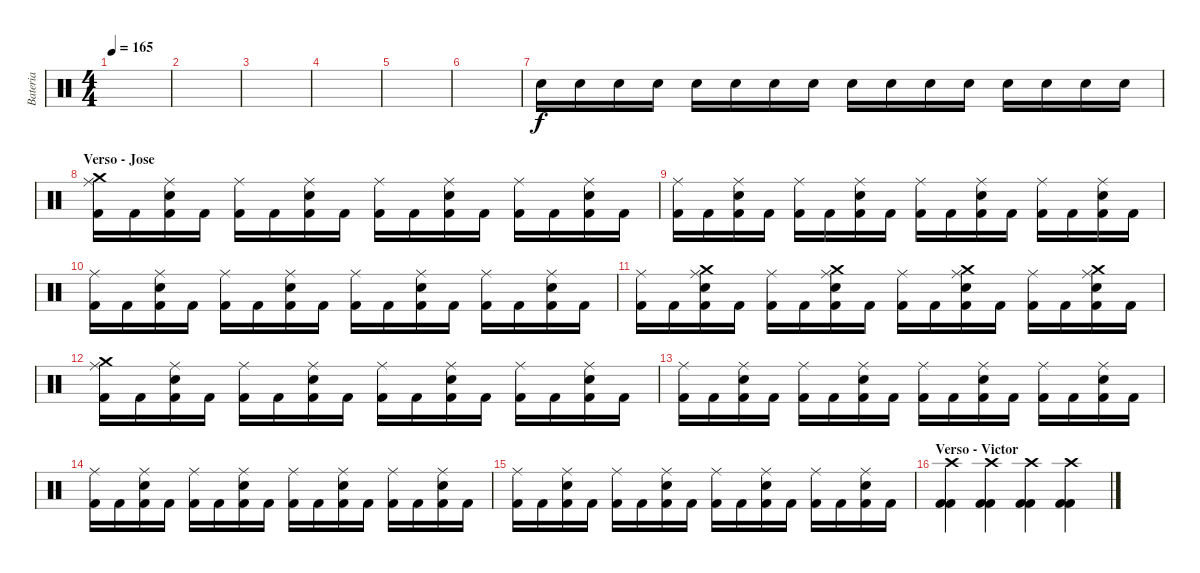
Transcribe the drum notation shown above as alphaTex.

\track ("Bateria" "Bateria") {instrument percussion}
\staff {score}
\articulation defaults
\ts (4 4)
\tempo 165
\clef neutral
\ks c
|
|
|
|
|
|
"Snare (hit) 2".16 "Snare (hit) 2".16 "Snare (hit) 2".16 "Snare (hit) 2".16 "Snare (hit) 2".16 "Snare (hit) 2".16 "Snare (hit) 2".16 "Snare (hit) 2".16 "Snare (hit) 2".16 "Snare (hit) 2".16 "Snare (hit) 2".16 "Snare (hit) 2".16 "Snare (hit) 2".16 "Snare (hit) 2".16 "Snare (hit) 2".16 "Snare (hit) 2".16 |
\section ("" "Verso - Jose")
("Crash medium (hit)" "Kick (hit) 2" "Ride (middle)").16 "Kick (hit) 2".16 ("Snare (hit) 2" "Ride (middle)" "Kick (hit) 2").16 "Kick (hit) 2".16 ("Kick (hit) 2" "Ride (middle)").16 "Kick (hit) 2".16 ("Snare (hit) 2" "Ride (middle)" "Kick (hit) 2").16 "Kick (hit) 2".16 ("Kick (hit) 2" "Ride (middle)").16 "Kick (hit) 2".16 ("Snare (hit) 2" "Ride (middle)" "Kick (hit) 2").16 "Kick (hit) 2".16 ("Kick (hit) 2" "Ride (middle)").16 "Kick (hit) 2".16 ("Snare (hit) 2" "Ride (middle)" "Kick (hit) 2").16 "Kick (hit) 2".16 |
("Kick (hit) 2" "Ride (middle)").16 "Kick (hit) 2".16 ("Snare (hit) 2" "Ride (middle)" "Kick (hit) 2").16 "Kick (hit) 2".16 ("Kick (hit) 2" "Ride (middle)").16 "Kick (hit) 2".16 ("Snare (hit) 2" "Ride (middle)" "Kick (hit) 2").16 "Kick (hit) 2".16 ("Kick (hit) 2" "Ride (middle)").16 "Kick (hit) 2".16 ("Snare (hit) 2" "Ride (middle)" "Kick (hit) 2").16 "Kick (hit) 2".16 ("Kick (hit) 2" "Ride (middle)").16 "Kick (hit) 2".16 ("Snare (hit) 2" "Ride (middle)" "Kick (hit) 2").16 "Kick (hit) 2".16 |
("Kick (hit) 2" "Ride (middle)").16 "Kick (hit) 2".16 ("Snare (hit) 2" "Ride (middle)" "Kick (hit) 2").16 "Kick (hit) 2".16 ("Kick (hit) 2" "Ride (middle)").16 "Kick (hit) 2".16 ("Snare (hit) 2" "Ride (middle)" "Kick (hit) 2").16 "Kick (hit) 2".16 ("Kick (hit) 2" "Ride (middle)").16 "Kick (hit) 2".16 ("Snare (hit) 2" "Ride (middle)" "Kick (hit) 2").16 "Kick (hit) 2".16 ("Kick (hit) 2" "Ride (middle)").16 "Kick (hit) 2".16 ("Snare (hit) 2" "Ride (middle)" "Kick (hit) 2").16 "Kick (hit) 2".16 |
("Kick (hit) 2" "Ride (middle)").16 "Kick (hit) 2".16 ("Snare (hit) 2" "Crash medium (hit)" "Ride (middle)" "Kick (hit) 2").16 "Kick (hit) 2".16 ("Kick (hit) 2" "Ride (middle)").16 "Kick (hit) 2".16 ("Snare (hit) 2" "Crash medium (hit)" "Ride (middle)" "Kick (hit) 2").16 "Kick (hit) 2".16 ("Kick (hit) 2" "Ride (middle)").16 "Kick (hit) 2".16 ("Snare (hit) 2" "Crash medium (hit)" "Ride (middle)" "Kick (hit) 2").16 "Kick (hit) 2".16 ("Kick (hit) 2" "Ride (middle)").16 "Kick (hit) 2".16 ("Snare (hit) 2" "Crash medium (hit)" "Ride (middle)" "Kick (hit) 2").16 "Kick (hit) 2".16 |
("Crash medium (hit)" "Kick (hit) 2" "Ride (middle)").16 "Kick (hit) 2".16 ("Snare (hit) 2" "Ride (middle)" "Kick (hit) 2").16 "Kick (hit) 2".16 ("Kick (hit) 2" "Ride (middle)").16 "Kick (hit) 2".16 ("Snare (hit) 2" "Ride (middle)" "Kick (hit) 2").16 "Kick (hit) 2".16 ("Kick (hit) 2" "Ride (middle)").16 "Kick (hit) 2".16 ("Snare (hit) 2" "Ride (middle)" "Kick (hit) 2").16 "Kick (hit) 2".16 ("Kick (hit) 2" "Ride (middle)").16 "Kick (hit) 2".16 ("Snare (hit) 2" "Ride (middle)" "Kick (hit) 2").16 "Kick (hit) 2".16 |
("Kick (hit) 2" "Ride (middle)").16 "Kick (hit) 2".16 ("Snare (hit) 2" "Ride (middle)" "Kick (hit) 2").16 "Kick (hit) 2".16 ("Kick (hit) 2" "Ride (middle)").16 "Kick (hit) 2".16 ("Snare (hit) 2" "Ride (middle)" "Kick (hit) 2").16 "Kick (hit) 2".16 ("Kick (hit) 2" "Ride (middle)").16 "Kick (hit) 2".16 ("Snare (hit) 2" "Ride (middle)" "Kick (hit) 2").16 "Kick (hit) 2".16 ("Kick (hit) 2" "Ride (middle)").16 "Kick (hit) 2".16 ("Snare (hit) 2" "Ride (middle)" "Kick (hit) 2").16 "Kick (hit) 2".16 |
("Kick (hit) 2" "Ride (middle)").16 "Kick (hit) 2".16 ("Snare (hit) 2" "Ride (middle)" "Kick (hit) 2").16 "Kick (hit) 2".16 ("Kick (hit) 2" "Ride (middle)").16 "Kick (hit) 2".16 ("Snare (hit) 2" "Ride (middle)" "Kick (hit) 2").16 "Kick (hit) 2".16 ("Kick (hit) 2" "Ride (middle)").16 "Kick (hit) 2".16 ("Snare (hit) 2" "Ride (middle)" "Kick (hit) 2").16 "Kick (hit) 2".16 ("Kick (hit) 2" "Ride (middle)").16 "Kick (hit) 2".16 ("Snare (hit) 2" "Ride (middle)" "Kick (hit) 2").16 "Kick (hit) 2".16 |
("Kick (hit) 2" "Ride (middle)").16 "Kick (hit) 2".16 ("Snare (hit) 2" "Ride (middle)" "Kick (hit) 2").16 "Kick (hit) 2".16 ("Kick (hit) 2" "Ride (middle)").16 "Kick (hit) 2".16 ("Snare (hit) 2" "Ride (middle)" "Kick (hit) 2").16 "Kick (hit) 2".16 ("Kick (hit) 2" "Ride (middle)").16 "Kick (hit) 2".16 ("Snare (hit) 2" "Ride (middle)" "Kick (hit) 2").16 "Kick (hit) 2".16 ("Kick (hit) 2" "Ride (middle)").16 "Kick (hit) 2".16 ("Snare (hit) 2" "Ride (middle)" "Kick (hit) 2").16 "Kick (hit) 2".16 |
\section ("" "Verso - Victor")
("Crash high (hit)" "Kick (hit) 2" "Kick (hit) 2").4 ("Crash high (hit)" "Kick (hit) 2" "Kick (hit) 2").4 ("Crash high (hit)" "Kick (hit) 2" "Kick (hit) 2").4 ("Crash high (hit)" "Kick (hit) 2" "Kick (hit) 2").4
